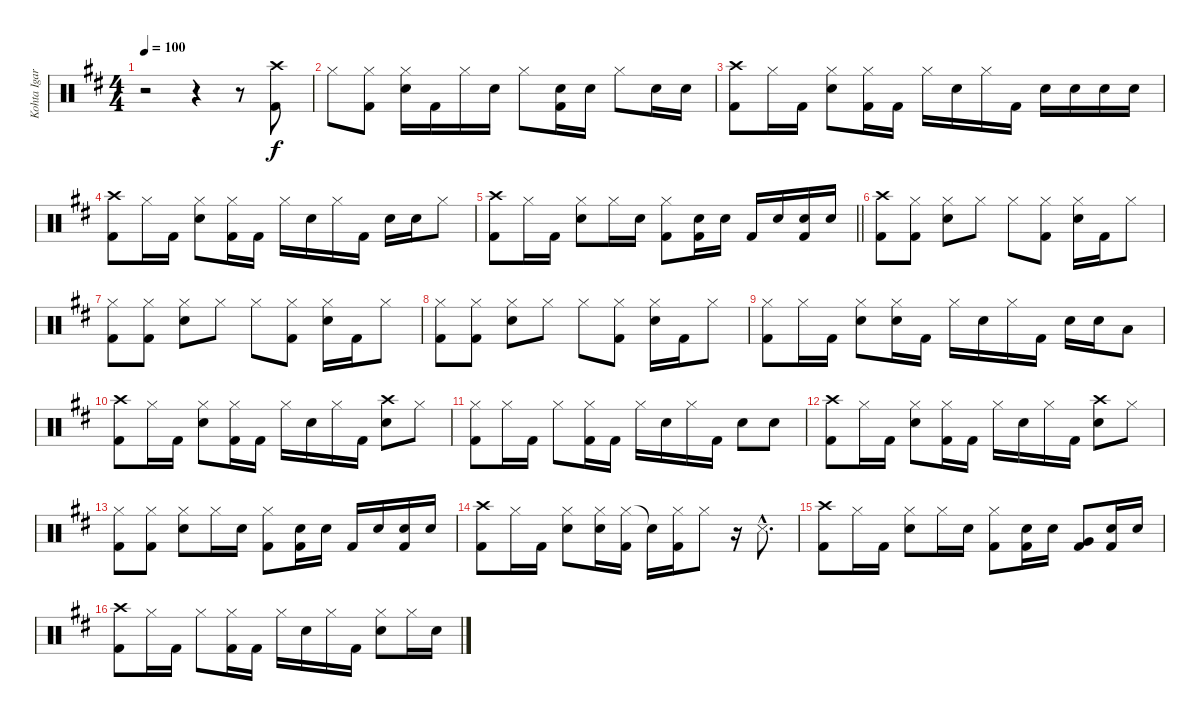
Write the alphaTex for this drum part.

\track ("Kohta Igarashi" "Kohta Igar") {instrument percussion}
\staff {score}
\articulation defaults
\ts (4 4)
\tempo 100
\clef neutral
\ks d
r.2{dy f} r.4 r.8 ("Crash high (hit)" "Kick (hit) 2").8 |
"Hi-Hat (closed)".8 ("Hi-Hat (closed)" "Kick (hit) 2").8 ("Hi-Hat (closed)" "Electric Snare (hit)").16 "Kick (hit) 2".16 "Hi-Hat (closed)".16 "Electric Snare (hit)".16 "Hi-Hat (closed)".8 ("Electric Snare (hit)" "Kick (hit) 2").16 "Electric Snare (hit)".16 "Hi-Hat (closed)".8 "Electric Snare (hit)".16 "Electric Snare (hit)".16 |
("Crash high (hit)" "Kick (hit) 2").8 "Hi-Hat (closed)".16 "Kick (hit) 2".16 ("Hi-Hat (closed)" "Electric Snare (hit)").8 ("Hi-Hat (closed)" "Kick (hit) 2").16 "Kick (hit) 2".16 "Hi-Hat (closed)".16 "Electric Snare (hit)".16 "Hi-Hat (closed)".16 "Kick (hit) 2".16 "Electric Snare (hit)".16 "Electric Snare (hit)".16 "Electric Snare (hit)".16 "Electric Snare (hit)".16 |
("Crash high (hit)" "Kick (hit) 2").8 "Hi-Hat (closed)".16 "Kick (hit) 2".16 ("Hi-Hat (closed)" "Electric Snare (hit)").8 ("Hi-Hat (closed)" "Kick (hit) 2").16 "Kick (hit) 2".16 "Hi-Hat (closed)".16 "Electric Snare (hit)".16 "Hi-Hat (closed)".16 "Kick (hit) 2".16 "Electric Snare (hit)".16 "Electric Snare (hit)".16 "Hi-Hat (closed)".8 |
\barLineRight lightlight
("Crash high (hit)" "Kick (hit) 2").8 "Hi-Hat (closed)".16 "Kick (hit) 2".16 ("Hi-Hat (closed)" "Electric Snare (hit)").8 "Hi-Hat (closed)".16 "Electric Snare (hit)".16 ("Hi-Hat (closed)" "Kick (hit) 2").8 ("Electric Snare (hit)" "Kick (hit) 2").16 "Electric Snare (hit)".16 "Kick (hit) 2".16 "Electric Snare (hit)".16 ("Electric Snare (hit)" "Kick (hit) 2").16 "Electric Snare (hit)".16 |
("Crash high (hit)" "Kick (hit) 2").8 ("Hi-Hat (closed)" "Kick (hit) 2").8 ("Hi-Hat (closed)" "Electric Snare (hit)").8 "Hi-Hat (closed)".8 "Hi-Hat (closed)".8 ("Hi-Hat (closed)" "Kick (hit) 2").8 ("Hi-Hat (closed)" "Electric Snare (hit)").16 "Kick (hit) 2".16 "Hi-Hat (closed)".8 |
("Hi-Hat (closed)" "Kick (hit) 2").8 ("Hi-Hat (closed)" "Kick (hit) 2").8 ("Hi-Hat (closed)" "Electric Snare (hit)").8 "Hi-Hat (closed)".8 "Hi-Hat (closed)".8 ("Hi-Hat (closed)" "Kick (hit) 2").8 ("Hi-Hat (closed)" "Electric Snare (hit)").16 "Kick (hit) 2".16 "Hi-Hat (closed)".8 |
("Hi-Hat (closed)" "Kick (hit) 2").8 ("Hi-Hat (closed)" "Kick (hit) 2").8 ("Hi-Hat (closed)" "Electric Snare (hit)").8 "Hi-Hat (closed)".8 "Hi-Hat (closed)".8 ("Hi-Hat (closed)" "Kick (hit) 2").8 ("Hi-Hat (closed)" "Electric Snare (hit)").16 "Kick (hit) 2".16 "Hi-Hat (closed)".8 |
("Hi-Hat (closed)" "Kick (hit) 2").8 "Hi-Hat (closed)".16 "Kick (hit) 2".16 ("Hi-Hat (closed)" "Electric Snare (hit)").8 ("Hi-Hat (closed)" "Electric Snare (hit)").16 "Kick (hit) 2".16 "Hi-Hat (closed)".16 "Electric Snare (hit)".16 "Hi-Hat (closed)".16 "Kick (hit) 2".16 "Electric Snare (hit)".16 "Electric Snare (hit)".16 "Low Tom (hit)".8 |
("Crash high (hit)" "Kick (hit) 2").8 "Hi-Hat (closed)".16 "Kick (hit) 2".16 ("Hi-Hat (closed)" "Electric Snare (hit)").8 ("Hi-Hat (closed)" "Kick (hit) 2").16 "Kick (hit) 2".16 "Hi-Hat (closed)".16 "Electric Snare (hit)".16 "Hi-Hat (closed)".16 "Kick (hit) 2".16 ("Crash high (hit)" "Electric Snare (hit)").8 "Hi-Hat (closed)".8 |
("Hi-Hat (closed)" "Kick (hit) 2").8 "Hi-Hat (closed)".16 "Kick (hit) 2".16 "Hi-Hat (closed)".8 ("Hi-Hat (closed)" "Kick (hit) 2").16 "Kick (hit) 2".16 "Hi-Hat (closed)".16 "Electric Snare (hit)".16 "Hi-Hat (closed)".16 "Kick (hit) 2".16 "Electric Snare (hit)".8 "Electric Snare (hit)".8 |
("Crash high (hit)" "Kick (hit) 2").8 "Hi-Hat (closed)".16 "Kick (hit) 2".16 ("Hi-Hat (closed)" "Electric Snare (hit)").8 ("Hi-Hat (closed)" "Kick (hit) 2").16 "Kick (hit) 2".16 "Hi-Hat (closed)".16 "Electric Snare (hit)".16 "Hi-Hat (closed)".16 "Kick (hit) 2".16 ("Crash high (hit)" "Electric Snare (hit)").8 "Hi-Hat (closed)".8 |
("Hi-Hat (closed)" "Kick (hit) 2").8 ("Hi-Hat (closed)" "Kick (hit) 2").8 ("Hi-Hat (closed)" "Electric Snare (hit)").8 "Hi-Hat (closed)".16 "Electric Snare (hit)".16 ("Hi-Hat (closed)" "Kick (hit) 2").8 ("Electric Snare (hit)" "Kick (hit) 2").16 "Electric Snare (hit)".16 "Kick (hit) 2".16 "Electric Snare (hit)".16 ("Electric Snare (hit)" "Kick (hit) 2").16 "Electric Snare (hit)".16 |
("Crash high (hit)" "Kick (hit) 2").8 "Hi-Hat (closed)".16 "Kick (hit) 2".16 ("Hi-Hat (closed)" "Electric Snare (hit)").8 ("Hi-Hat (closed)" "Electric Snare (hit)").16 ("Hi-Hat (closed)" "Kick (hit) 2").16 "Snare (hit)"{t}.16 ("Hi-Hat (closed)" "Kick (hit) 2").16 "Hi-Hat (closed)".8 r.16 "Snare (side stick) 3"{hac}.8{d} |
("Crash high (hit)" "Kick (hit) 2").8 "Hi-Hat (closed)".16 "Kick (hit) 2".16 ("Hi-Hat (closed)" "Electric Snare (hit)").8 "Hi-Hat (closed)".16 "Electric Snare (hit)".16 ("Hi-Hat (closed)" "Kick (hit) 2").8 ("Electric Snare (hit)" "Kick (hit) 2").16 "Electric Snare (hit)".16 ("Very Low Tom (hit)" "Kick (hit) 2").8 ("Electric Snare (hit)" "Kick (hit) 2").16 "Electric Snare (hit)".16 |
("Crash high (hit)" "Kick (hit) 2").8 "Hi-Hat (closed)".16 "Kick (hit) 2".16 "Hi-Hat (closed)".8 ("Hi-Hat (closed)" "Kick (hit) 2").16 "Kick (hit) 2".16 "Hi-Hat (closed)".16 "Electric Snare (hit)".16 "Hi-Hat (closed)".16 "Kick (hit) 2".16 ("Hi-Hat (closed)" "Electric Snare (hit)").8 "Hi-Hat (closed)".16 "Electric Snare (hit)".16
